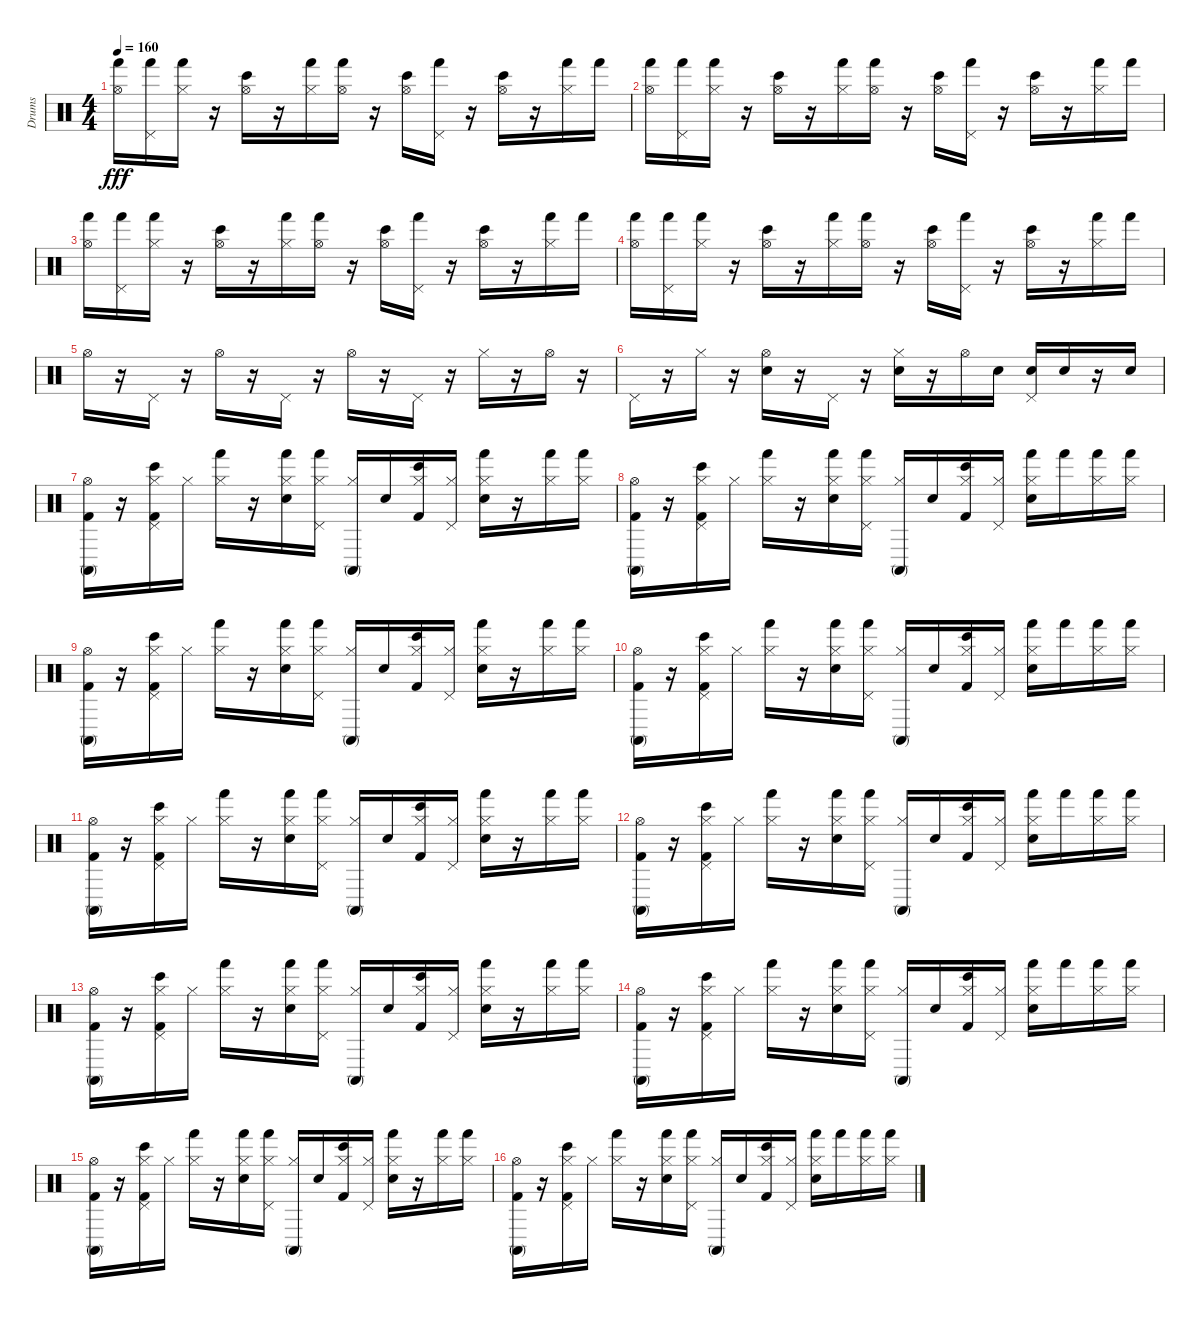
\track ("Drums" "Drums") {instrument percussion}
\staff {score}
\articulation defaults
\ts (4 4)
\tempo 160
\clef neutral
\ks c
("Hand (hit)" "Hi-Hat (open)").16{dy fff} ("Pedal Hi-Hat (hit)" "Hand (hit)").16 ("Hi-Hat (closed)" "Hand (hit)").16 r.16 ("Bongo High (hit)" "Hi-Hat (open)").16 r.16 ("Hi-Hat (closed)" "Hand (hit)").16 ("Hi-Hat (open)" "Hand (hit)").16 r.16 ("Hi-Hat (open)" "Bongo High (hit)").16 ("Hand (hit)" "Pedal Hi-Hat (hit)").16 r.16 ("Bongo High (hit)" "Hi-Hat (open)").16 r.16 ("Hand (hit)" "Hi-Hat (closed)").16 "Hand (hit)".16 |
("Hand (hit)" "Hi-Hat (open)").16 ("Pedal Hi-Hat (hit)" "Hand (hit)").16 ("Hi-Hat (closed)" "Hand (hit)").16 r.16 ("Bongo High (hit)" "Hi-Hat (open)").16 r.16 ("Hi-Hat (closed)" "Hand (hit)").16 ("Hi-Hat (open)" "Hand (hit)").16 r.16 ("Hi-Hat (open)" "Bongo High (hit)").16 ("Hand (hit)" "Pedal Hi-Hat (hit)").16 r.16 ("Hi-Hat (open)" "Bongo High (hit)").16 r.16 ("Hand (hit)" "Hi-Hat (closed)").16 "Hand (hit)".16 |
("Hi-Hat (open)" "Hand (hit)").16 ("Pedal Hi-Hat (hit)" "Hand (hit)").16 ("Hand (hit)" "Hi-Hat (closed)").16 r.16 ("Hi-Hat (open)" "Bongo High (hit)").16 r.16 ("Hi-Hat (closed)" "Hand (hit)").16 ("Hi-Hat (open)" "Hand (hit)").16 r.16 ("Hi-Hat (open)" "Bongo High (hit)").16 ("Hand (hit)" "Pedal Hi-Hat (hit)").16 r.16 ("Hi-Hat (open)" "Bongo High (hit)").16 r.16 ("Hi-Hat (closed)" "Hand (hit)").16 "Hand (hit)".16 |
("Hand (hit)" "Hi-Hat (open)").16 ("Pedal Hi-Hat (hit)" "Hand (hit)").16 ("Hand (hit)" "Hi-Hat (closed)").16 r.16 ("Bongo High (hit)" "Hi-Hat (open)").16 r.16 ("Hi-Hat (closed)" "Hand (hit)").16 ("Hand (hit)" "Hi-Hat (open)").16 r.16 ("Bongo High (hit)" "Hi-Hat (open)").16 ("Pedal Hi-Hat (hit)" "Hand (hit)").16 r.16 ("Hi-Hat (open)" "Bongo High (hit)").16 r.16 ("Hand (hit)" "Hi-Hat (closed)").16 "Hand (hit)".16 |
"Hi-Hat (open)".16 r.16 "Pedal Hi-Hat (hit)".16 r.16 "Hi-Hat (open)".16 r.16 "Pedal Hi-Hat (hit)".16 r.16 "Hi-Hat (open)".16 r.16 "Pedal Hi-Hat (hit)".16 r.16 "Hi-Hat (closed)".16 r.16 "Hi-Hat (open)".16 r.16 |
"Pedal Hi-Hat (hit)".16 r.16 "Hi-Hat (closed)".16 r.16 ("Electric Snare (hit)" "Hi-Hat (open)").16 r.16 "Pedal Hi-Hat (hit)".16 r.16 ("Hi-Hat (closed)" "Electric Snare (hit)").16 r.16 "Hi-Hat (open)".16 "Electric Snare (hit)".16 ("Electric Snare (hit)" "Pedal Hi-Hat (hit)").16 "Electric Snare (hit)".16 r.16 "Electric Snare (hit)".16 |
("Hi-Hat (open)" "Conga high (mute)" "Kick (hit) 2").16 r.16 ("Hi-Hat (closed)" "Pedal Hi-Hat (hit)" "Bongo High (hit)" "Kick (hit) 2").16 "Hi-Hat (closed)".16 ("Hi-Hat (closed)" "Hand (hit)").16 r.16 ("Hand (hit)" "Electric Snare (hit)" "Hi-Hat (closed)").16 ("Hi-Hat (closed)" "Hand (hit)" "Pedal Hi-Hat (hit)").16 ("Conga high (mute)" "Hi-Hat (closed)").16 "Electric Snare (hit)".16 ("Hi-Hat (closed)" "Kick (hit) 2" "Bongo High (hit)").16 ("Pedal Hi-Hat (hit)" "Hi-Hat (closed)").16 ("Hand (hit)" "Electric Snare (hit)" "Hi-Hat (closed)").16 r.16 ("Hand (hit)" "Hi-Hat (closed)").16 ("Hand (hit)" "Hi-Hat (closed)").16 |
("Conga high (mute)" "Kick (hit) 2" "Hi-Hat (open)").16 r.16 ("Hi-Hat (closed)" "Kick (hit) 2" "Bongo High (hit)" "Pedal Hi-Hat (hit)").16 "Hi-Hat (closed)".16 ("Hi-Hat (closed)" "Hand (hit)").16 r.16 ("Hand (hit)" "Hi-Hat (closed)" "Electric Snare (hit)").16 ("Pedal Hi-Hat (hit)" "Hand (hit)" "Hi-Hat (closed)").16 ("Hi-Hat (closed)" "Conga high (mute)").16 "Electric Snare (hit)".16 ("Hi-Hat (closed)" "Kick (hit) 2" "Bongo High (hit)").16 ("Pedal Hi-Hat (hit)" "Hi-Hat (closed)").16 ("Electric Snare (hit)" "Hi-Hat (closed)" "Hand (hit)").16 "Hand (hit)".16 ("Hi-Hat (closed)" "Hand (hit)").16 ("Hand (hit)" "Hi-Hat (closed)").16 |
("Conga high (mute)" "Hi-Hat (open)" "Kick (hit) 2").16 r.16 ("Kick (hit) 2" "Hi-Hat (closed)" "Pedal Hi-Hat (hit)" "Bongo High (hit)").16 "Hi-Hat (closed)".16 ("Hand (hit)" "Hi-Hat (closed)").16 r.16 ("Hi-Hat (closed)" "Hand (hit)" "Electric Snare (hit)").16 ("Hi-Hat (closed)" "Pedal Hi-Hat (hit)" "Hand (hit)").16 ("Hi-Hat (closed)" "Conga high (mute)").16 "Electric Snare (hit)".16 ("Bongo High (hit)" "Hi-Hat (closed)" "Kick (hit) 2").16 ("Hi-Hat (closed)" "Pedal Hi-Hat (hit)").16 ("Hi-Hat (closed)" "Hand (hit)" "Electric Snare (hit)").16 r.16 ("Hand (hit)" "Hi-Hat (closed)").16 ("Hi-Hat (closed)" "Hand (hit)").16 |
("Hi-Hat (open)" "Kick (hit) 2" "Conga high (mute)").16 r.16 ("Hi-Hat (closed)" "Bongo High (hit)" "Pedal Hi-Hat (hit)" "Kick (hit) 2").16 "Hi-Hat (closed)".16 ("Hi-Hat (closed)" "Hand (hit)").16 r.16 ("Hand (hit)" "Hi-Hat (closed)" "Electric Snare (hit)").16 ("Hand (hit)" "Hi-Hat (closed)" "Pedal Hi-Hat (hit)").16 ("Hi-Hat (closed)" "Conga high (mute)").16 "Electric Snare (hit)".16 ("Kick (hit) 2" "Bongo High (hit)" "Hi-Hat (closed)").16 ("Hi-Hat (closed)" "Pedal Hi-Hat (hit)").16 ("Hi-Hat (closed)" "Hand (hit)" "Electric Snare (hit)").16 "Hand (hit)".16 ("Hand (hit)" "Hi-Hat (closed)").16 ("Hand (hit)" "Hi-Hat (closed)").16 |
("Kick (hit) 2" "Hi-Hat (open)" "Conga high (mute)").16 r.16 ("Bongo High (hit)" "Hi-Hat (closed)" "Kick (hit) 2" "Pedal Hi-Hat (hit)").16 "Hi-Hat (closed)".16 ("Hand (hit)" "Hi-Hat (closed)").16 r.16 ("Hi-Hat (closed)" "Electric Snare (hit)" "Hand (hit)").16 ("Hi-Hat (closed)" "Hand (hit)" "Pedal Hi-Hat (hit)").16 ("Conga high (mute)" "Hi-Hat (closed)").16 "Electric Snare (hit)".16 ("Hi-Hat (closed)" "Kick (hit) 2" "Bongo High (hit)").16 ("Hi-Hat (closed)" "Pedal Hi-Hat (hit)").16 ("Hand (hit)" "Electric Snare (hit)" "Hi-Hat (closed)").16 r.16 ("Hi-Hat (closed)" "Hand (hit)").16 ("Hi-Hat (closed)" "Hand (hit)").16 |
("Hi-Hat (open)" "Conga high (mute)" "Kick (hit) 2").16 r.16 ("Kick (hit) 2" "Pedal Hi-Hat (hit)" "Bongo High (hit)" "Hi-Hat (closed)").16 "Hi-Hat (closed)".16 ("Hi-Hat (closed)" "Hand (hit)").16 r.16 ("Electric Snare (hit)" "Hand (hit)" "Hi-Hat (closed)").16 ("Hand (hit)" "Pedal Hi-Hat (hit)" "Hi-Hat (closed)").16 ("Hi-Hat (closed)" "Conga high (mute)").16 "Electric Snare (hit)".16 ("Bongo High (hit)" "Hi-Hat (closed)" "Kick (hit) 2").16 ("Hi-Hat (closed)" "Pedal Hi-Hat (hit)").16 ("Hand (hit)" "Hi-Hat (closed)" "Electric Snare (hit)").16 "Hand (hit)".16 ("Hand (hit)" "Hi-Hat (closed)").16 ("Hand (hit)" "Hi-Hat (closed)").16 |
("Conga high (mute)" "Hi-Hat (open)" "Kick (hit) 2").16 r.16 ("Hi-Hat (closed)" "Bongo High (hit)" "Kick (hit) 2" "Pedal Hi-Hat (hit)").16 "Hi-Hat (closed)".16 ("Hand (hit)" "Hi-Hat (closed)").16 r.16 ("Hi-Hat (closed)" "Hand (hit)" "Electric Snare (hit)").16 ("Hand (hit)" "Pedal Hi-Hat (hit)" "Hi-Hat (closed)").16 ("Conga high (mute)" "Hi-Hat (closed)").16 "Electric Snare (hit)".16 ("Bongo High (hit)" "Hi-Hat (closed)" "Kick (hit) 2").16 ("Hi-Hat (closed)" "Pedal Hi-Hat (hit)").16 ("Electric Snare (hit)" "Hand (hit)" "Hi-Hat (closed)").16 r.16 ("Hi-Hat (closed)" "Hand (hit)").16 ("Hand (hit)" "Hi-Hat (closed)").16 |
("Kick (hit) 2" "Conga high (mute)" "Hi-Hat (open)").16 r.16 ("Kick (hit) 2" "Hi-Hat (closed)" "Pedal Hi-Hat (hit)" "Bongo High (hit)").16 "Hi-Hat (closed)".16 ("Hand (hit)" "Hi-Hat (closed)").16 r.16 ("Hand (hit)" "Electric Snare (hit)" "Hi-Hat (closed)").16 ("Hand (hit)" "Pedal Hi-Hat (hit)" "Hi-Hat (closed)").16 ("Conga high (mute)" "Hi-Hat (closed)").16 "Electric Snare (hit)".16 ("Bongo High (hit)" "Kick (hit) 2" "Hi-Hat (closed)").16 ("Pedal Hi-Hat (hit)" "Hi-Hat (closed)").16 ("Hi-Hat (closed)" "Electric Snare (hit)" "Hand (hit)").16 "Hand (hit)".16 ("Hi-Hat (closed)" "Hand (hit)").16 ("Hi-Hat (closed)" "Hand (hit)").16 |
("Conga high (mute)" "Hi-Hat (open)" "Kick (hit) 2").16 r.16 ("Hi-Hat (closed)" "Bongo High (hit)" "Kick (hit) 2" "Pedal Hi-Hat (hit)").16 "Hi-Hat (closed)".16 ("Hi-Hat (closed)" "Hand (hit)").16 r.16 ("Electric Snare (hit)" "Hi-Hat (closed)" "Hand (hit)").16 ("Hand (hit)" "Hi-Hat (closed)" "Pedal Hi-Hat (hit)").16 ("Hi-Hat (closed)" "Conga high (mute)").16 "Electric Snare (hit)".16 ("Hi-Hat (closed)" "Bongo High (hit)" "Kick (hit) 2").16 ("Pedal Hi-Hat (hit)" "Hi-Hat (closed)").16 ("Hi-Hat (closed)" "Electric Snare (hit)" "Hand (hit)").16 r.16 ("Hand (hit)" "Hi-Hat (closed)").16 ("Hi-Hat (closed)" "Hand (hit)").16 |
("Conga high (mute)" "Kick (hit) 2" "Hi-Hat (open)").16 r.16 ("Bongo High (hit)" "Hi-Hat (closed)" "Pedal Hi-Hat (hit)" "Kick (hit) 2").16 "Hi-Hat (closed)".16 ("Hand (hit)" "Hi-Hat (closed)").16 r.16 ("Hand (hit)" "Hi-Hat (closed)" "Electric Snare (hit)").16 ("Hi-Hat (closed)" "Hand (hit)" "Pedal Hi-Hat (hit)").16 ("Hi-Hat (closed)" "Conga high (mute)").16 "Electric Snare (hit)".16 ("Hi-Hat (closed)" "Kick (hit) 2" "Bongo High (hit)").16 ("Pedal Hi-Hat (hit)" "Hi-Hat (closed)").16 ("Hand (hit)" "Electric Snare (hit)" "Hi-Hat (closed)").16 "Hand (hit)".16 ("Hand (hit)" "Hi-Hat (closed)").16 ("Hi-Hat (closed)" "Hand (hit)").16
